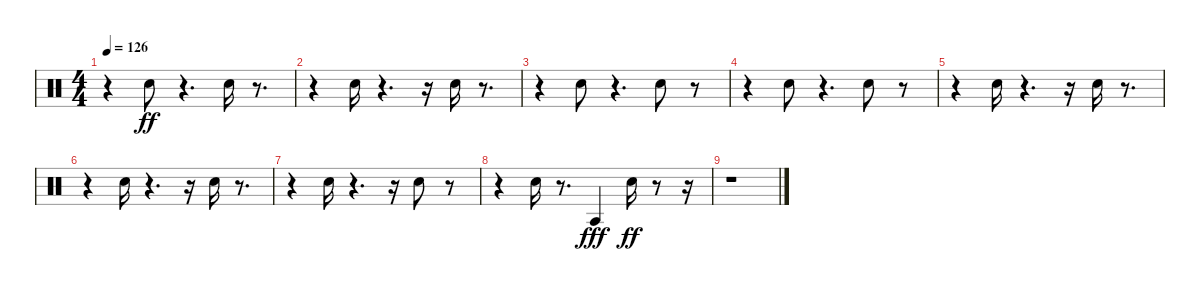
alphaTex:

\track "" {instrument percussion}
\staff {score}
\articulation defaults
\ts (4 4)
\tempo 126
\clef neutral
\ks c
r.4{dy ff} "Snare (hit) 2".8 r.4{d} "Snare (hit) 2".16 r.8{d} |
r.4 "Snare (hit) 2".16 r.4{d} r.16 "Snare (hit) 2".16 r.8{d} |
r.4 "Snare (hit) 2".8 r.4{d} "Snare (hit) 2".8 r.8 |
r.4 "Snare (hit) 2".8 r.4{d} "Snare (hit) 2".8 r.8 |
r.4 "Snare (hit) 2".16 r.4{d} r.16 "Snare (hit) 2".16 r.8{d} |
r.4 "Snare (hit) 2".16 r.4{d} r.16 "Snare (hit) 2".16 r.8{d} |
r.4 "Snare (hit) 2".16 r.4{d} r.16 "Snare (hit) 2".8 r.8 |
r.4 "Snare (hit) 2".16 r.8{d} "Agogo tow (hit)".4{dy fff} "Snare (hit) 2".16{dy ff} r.8 r.16 |
r.1
